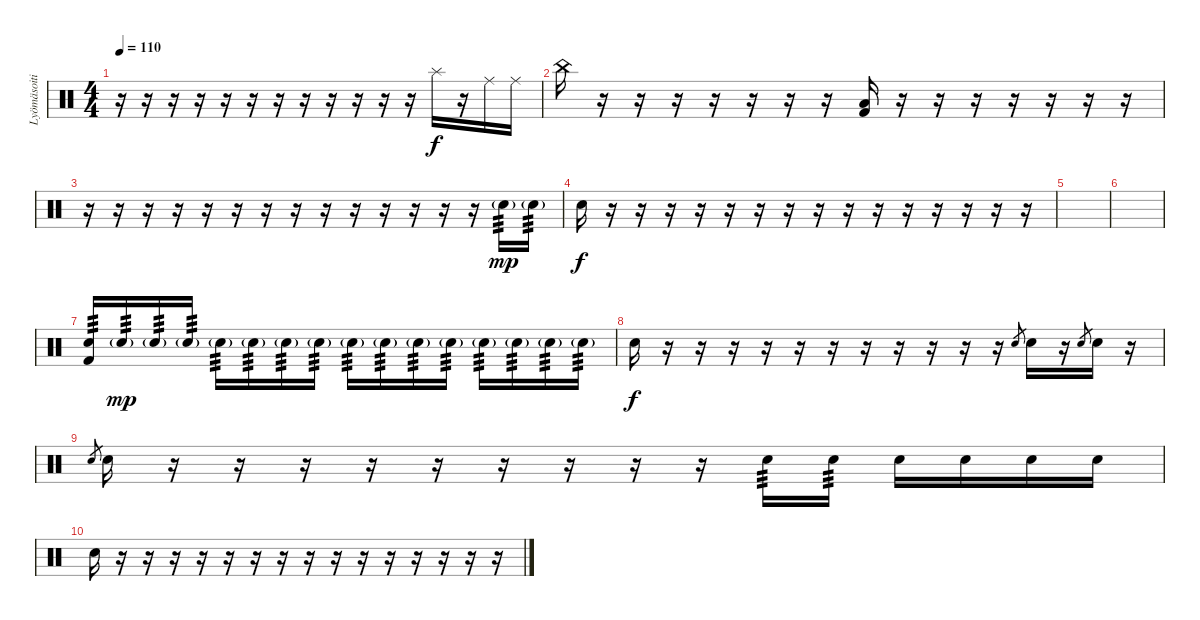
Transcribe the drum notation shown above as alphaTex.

\track ("Lyömäsoitin" "Lyömäsoiti") {instrument percussion}
\staff {score}
\articulation defaults
\ts (4 4)
\tempo 110
\clef neutral
\ks c
r.16{dy f} r.16 r.16 r.16 r.16 r.16 r.16 r.16 r.16 r.16 r.16 r.16 "Splash (hit)".16 r.16 "Ride (middle)".16 "Ride (middle)".16 |
"China (hit)".16 r.16 r.16 r.16 r.16 r.16 r.16 r.16 ("Low Tom (hit)" "Kick (hit) 2").16 r.16 r.16 r.16 r.16 r.16 r.16 r.16 |
r.16 r.16 r.16 r.16 r.16 r.16 r.16 r.16 r.16 r.16 r.16 r.16 r.16 r.16 "Snare (hit) 2"{g}.16{tp 3 dy mp} "Snare (hit) 2"{g}.16{tp 3} |
"Snare (hit) 2".16{dy f} r.16 r.16 r.16 r.16 r.16 r.16 r.16 r.16 r.16 r.16 r.16 r.16 r.16 r.16 r.16 |
|
|
("Snare (hit) 2" "Kick (hit) 2").16{tp 3} "Snare (hit) 2"{g}.16{tp 3 dy mp} "Snare (hit) 2"{g}.16{tp 3} "Snare (hit) 2"{g}.16{tp 3} "Snare (hit) 2"{g}.16{tp 3} "Snare (hit) 2"{g}.16{tp 3} "Snare (hit) 2"{g}.16{tp 3} "Snare (hit) 2"{g}.16{tp 3} "Snare (hit) 2"{g}.16{tp 3} "Snare (hit) 2"{g}.16{tp 3} "Snare (hit) 2"{g}.16{tp 3} "Snare (hit) 2"{g}.16{tp 3} "Snare (hit) 2"{g}.16{tp 3} "Snare (hit) 2"{g}.16{tp 3} "Snare (hit) 2"{g}.16{tp 3} "Snare (hit) 2"{g}.16{tp 3} |
"Snare (hit) 2".16{dy f} r.16 r.16 r.16 r.16 r.16 r.16 r.16 r.16 r.16 r.16 r.16 "Snare (hit) 2"{h}.8{gr} "Snare (hit) 2".16 r.16 "Snare (hit) 2"{h}.8{gr} "Snare (hit) 2".16 r.16 |
"Snare (hit) 2"{h}.8{gr} "Snare (hit) 2".16 r.16 r.16 r.16 r.16 r.16 r.16 r.16 r.16 r.16 "Snare (hit) 2".16{tp 3} "Snare (hit) 2".16{tp 3} "Snare (hit) 2".16 "Snare (hit) 2".16 "Snare (hit) 2".16 "Snare (hit) 2".16 |
"Snare (hit) 2".16 r.16 r.16 r.16 r.16 r.16 r.16 r.16 r.16 r.16 r.16 r.16 r.16 r.16 r.16 r.16
